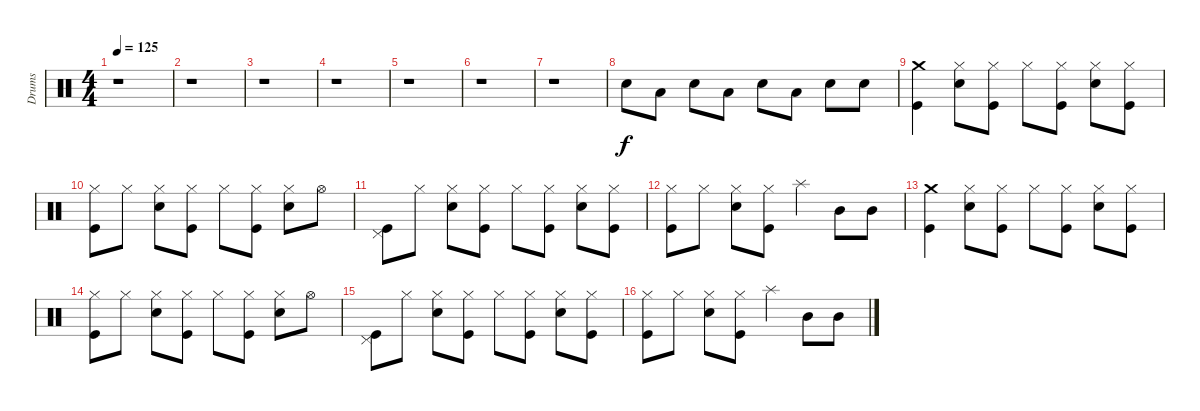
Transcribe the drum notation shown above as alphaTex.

\track ("Drums" "Drums") {instrument percussion}
\staff {score}
\articulation defaults
\ts (4 4)
\tempo 125
\clef neutral
\ks c
r.1{dy f} |
r.1 |
r.1 |
r.1 |
r.1 |
r.1 |
r.1 |
"Snare (hit) 2".8 "Low Tom (hit)".8 "Snare (hit) 2".8 "Low Tom (hit)".8 "Snare (hit) 2".8 "Low Tom (hit)".8 "Snare (hit) 2".8 "Snare (hit) 2".8 |
("Crash medium (hit)" "Kick (hit)").4 ("Hi-Hat (closed)" "Snare (hit) 2").8 ("Hi-Hat (closed)" "Kick (hit)").8 "Hi-Hat (closed)".8 ("Hi-Hat (closed)" "Kick (hit)").8 ("Hi-Hat (closed)" "Snare (hit) 2").8 ("Hi-Hat (closed)" "Kick (hit)").8 |
("Hi-Hat (closed)" "Kick (hit)").8 "Hi-Hat (closed)".8 ("Hi-Hat (closed)" "Snare (hit) 2").8 ("Hi-Hat (closed)" "Kick (hit)").8 "Hi-Hat (closed)".8 ("Hi-Hat (closed)" "Kick (hit)").8 ("Hi-Hat (closed)" "Snare (hit) 2").8 "Hi-Hat (open)".8 |
("Pedal Hi-Hat (hit)" "Kick (hit)").8 "Hi-Hat (closed)".8 ("Hi-Hat (closed)" "Snare (hit) 2").8 ("Hi-Hat (closed)" "Kick (hit)").8 "Hi-Hat (closed)".8 ("Hi-Hat (closed)" "Kick (hit)").8 ("Hi-Hat (closed)" "Snare (hit) 2").8 ("Hi-Hat (closed)" "Kick (hit)").8 |
("Hi-Hat (closed)" "Kick (hit)").8 "Hi-Hat (closed)".8 ("Hi-Hat (closed)" "Snare (hit) 2").8 ("Hi-Hat (closed)" "Kick (hit)").8 "Splash (hit)".4 "Mid Tom (hit)".8 "Mid Tom (hit)".8 |
("Crash medium (hit)" "Kick (hit)").4 ("Hi-Hat (closed)" "Snare (hit) 2").8 ("Hi-Hat (closed)" "Kick (hit)").8 "Hi-Hat (closed)".8 ("Hi-Hat (closed)" "Kick (hit)").8 ("Hi-Hat (closed)" "Snare (hit) 2").8 ("Hi-Hat (closed)" "Kick (hit)").8 |
("Hi-Hat (closed)" "Kick (hit)").8 "Hi-Hat (closed)".8 ("Hi-Hat (closed)" "Snare (hit) 2").8 ("Hi-Hat (closed)" "Kick (hit)").8 "Hi-Hat (closed)".8 ("Hi-Hat (closed)" "Kick (hit)").8 ("Hi-Hat (closed)" "Snare (hit) 2").8 "Hi-Hat (open)".8 |
("Pedal Hi-Hat (hit)" "Kick (hit)").8 "Hi-Hat (closed)".8 ("Hi-Hat (closed)" "Snare (hit) 2").8 ("Hi-Hat (closed)" "Kick (hit)").8 "Hi-Hat (closed)".8 ("Hi-Hat (closed)" "Kick (hit)").8 ("Hi-Hat (closed)" "Snare (hit) 2").8 ("Hi-Hat (closed)" "Kick (hit)").8 |
("Hi-Hat (closed)" "Kick (hit)").8 "Hi-Hat (closed)".8 ("Hi-Hat (closed)" "Snare (hit) 2").8 ("Hi-Hat (closed)" "Kick (hit)").8 "Splash (hit)".4 "Mid Tom (hit)".8 "Mid Tom (hit)".8
